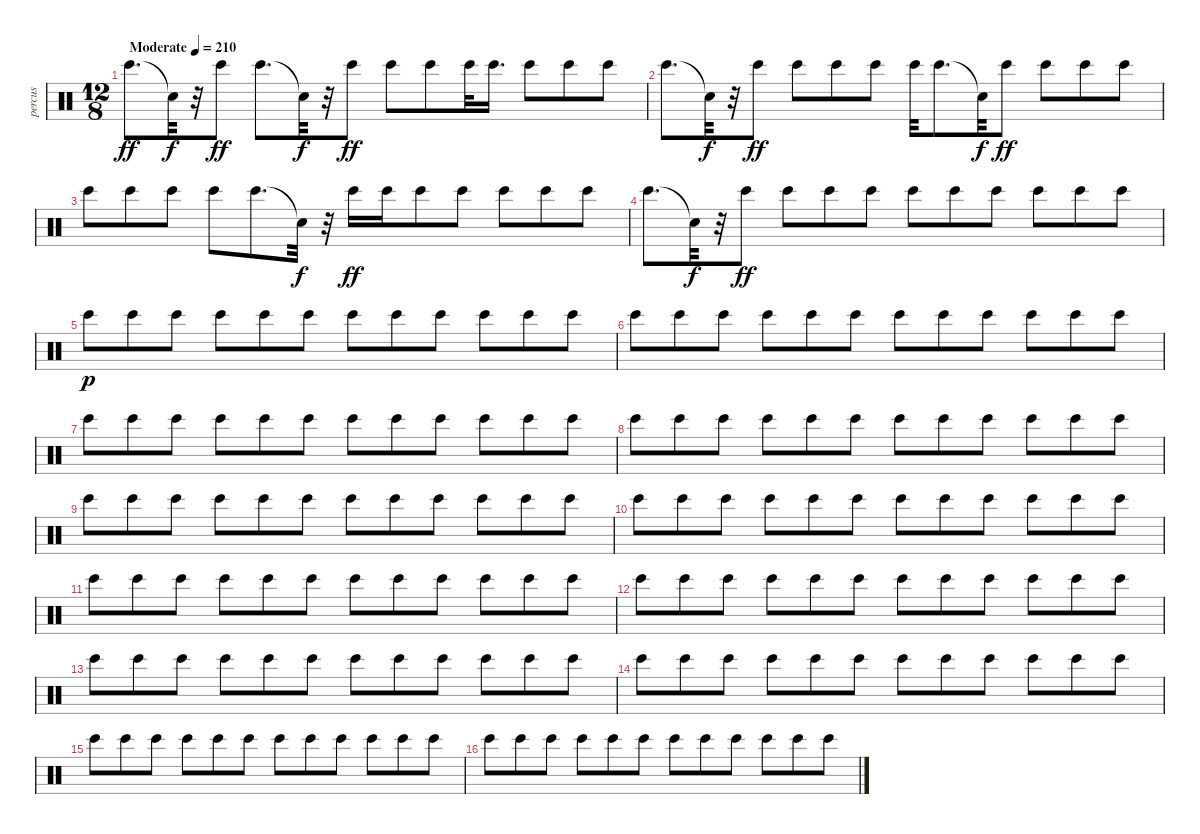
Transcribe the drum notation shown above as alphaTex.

\track ("percus" "percus") {instrument percussion}
\staff {score}
\articulation defaults
\ts (12 8)
\tempo (210 "Moderate")
\clef neutral
\ks c "Bongo High (hit)".8{d dy ff} "Snare (hit)"{t}.32{dy f}
r.32 "Bongo High (hit)".8{dy ff} "Bongo High (hit)".8{d} "Snare (hit)"{t}.32{dy f} r.32 "Bongo High (hit)".8{dy ff} "Bongo High (hit)".8 "Bongo High (hit)".8 "Bongo High (hit)".32 "Bongo High (hit)".16{d} "Bongo High (hit)".8 "Bongo High (hit)".8 "Bongo High (hit)".8 |
"Bongo High (hit)".8{d} "Snare (hit)"{t}.32{dy f} r.32 "Bongo High (hit)".8{dy ff} "Bongo High (hit)".8 "Bongo High (hit)".8 "Bongo High (hit)".8 "Bongo High (hit)".32 "Bongo High (hit)".8{d} "Snare (hit)"{t}.32{dy f} "Bongo High (hit)".8{dy ff} "Bongo High (hit)".8 "Bongo High (hit)".8 "Bongo High (hit)".8 |
"Bongo High (hit)".8 "Bongo High (hit)".8 "Bongo High (hit)".8 "Bongo High (hit)".8 "Bongo High (hit)".8{d} "Snare (hit)"{t}.32{dy f} r.32 "Bongo High (hit)".16{dy ff} "Bongo High (hit)".16 "Bongo High (hit)".8 "Bongo High (hit)".8 "Bongo High (hit)".8 "Bongo High (hit)".8 "Bongo High (hit)".8 |
"Bongo High (hit)".8{d} "Snare (hit)"{t}.32{dy f} r.32 "Bongo High (hit)".8{dy ff} "Bongo High (hit)".8 "Bongo High (hit)".8 "Bongo High (hit)".8 "Bongo High (hit)".8 "Bongo High (hit)".8 "Bongo High (hit)".8 "Bongo High (hit)".8 "Bongo High (hit)".8 "Bongo High (hit)".8 |
"Bongo High (hit)".8{dy p} "Bongo High (hit)".8 "Bongo High (hit)".8 "Bongo High (hit)".8 "Bongo High (hit)".8 "Bongo High (hit)".8 "Bongo High (hit)".8 "Bongo High (hit)".8 "Bongo High (hit)".8 "Bongo High (hit)".8 "Bongo High (hit)".8 "Bongo High (hit)".8 |
"Bongo High (hit)".8 "Bongo High (hit)".8 "Bongo High (hit)".8 "Bongo High (hit)".8 "Bongo High (hit)".8 "Bongo High (hit)".8 "Bongo High (hit)".8 "Bongo High (hit)".8 "Bongo High (hit)".8 "Bongo High (hit)".8 "Bongo High (hit)".8 "Bongo High (hit)".8 |
"Bongo High (hit)".8 "Bongo High (hit)".8 "Bongo High (hit)".8 "Bongo High (hit)".8 "Bongo High (hit)".8 "Bongo High (hit)".8 "Bongo High (hit)".8 "Bongo High (hit)".8 "Bongo High (hit)".8 "Bongo High (hit)".8 "Bongo High (hit)".8 "Bongo High (hit)".8 |
"Bongo High (hit)".8 "Bongo High (hit)".8 "Bongo High (hit)".8 "Bongo High (hit)".8 "Bongo High (hit)".8 "Bongo High (hit)".8 "Bongo High (hit)".8 "Bongo High (hit)".8 "Bongo High (hit)".8 "Bongo High (hit)".8 "Bongo High (hit)".8 "Bongo High (hit)".8 |
"Bongo High (hit)".8 "Bongo High (hit)".8 "Bongo High (hit)".8 "Bongo High (hit)".8 "Bongo High (hit)".8 "Bongo High (hit)".8 "Bongo High (hit)".8 "Bongo High (hit)".8 "Bongo High (hit)".8 "Bongo High (hit)".8 "Bongo High (hit)".8 "Bongo High (hit)".8 |
"Bongo High (hit)".8 "Bongo High (hit)".8 "Bongo High (hit)".8 "Bongo High (hit)".8 "Bongo High (hit)".8 "Bongo High (hit)".8 "Bongo High (hit)".8 "Bongo High (hit)".8 "Bongo High (hit)".8 "Bongo High (hit)".8 "Bongo High (hit)".8 "Bongo High (hit)".8 |
"Bongo High (hit)".8 "Bongo High (hit)".8 "Bongo High (hit)".8 "Bongo High (hit)".8 "Bongo High (hit)".8 "Bongo High (hit)".8 "Bongo High (hit)".8 "Bongo High (hit)".8 "Bongo High (hit)".8 "Bongo High (hit)".8 "Bongo High (hit)".8 "Bongo High (hit)".8 |
"Bongo High (hit)".8 "Bongo High (hit)".8 "Bongo High (hit)".8 "Bongo High (hit)".8 "Bongo High (hit)".8 "Bongo High (hit)".8 "Bongo High (hit)".8 "Bongo High (hit)".8 "Bongo High (hit)".8 "Bongo High (hit)".8 "Bongo High (hit)".8 "Bongo High (hit)".8 |
"Bongo High (hit)".8 "Bongo High (hit)".8 "Bongo High (hit)".8 "Bongo High (hit)".8 "Bongo High (hit)".8 "Bongo High (hit)".8 "Bongo High (hit)".8 "Bongo High (hit)".8 "Bongo High (hit)".8 "Bongo High (hit)".8 "Bongo High (hit)".8 "Bongo High (hit)".8 |
"Bongo High (hit)".8 "Bongo High (hit)".8 "Bongo High (hit)".8 "Bongo High (hit)".8 "Bongo High (hit)".8 "Bongo High (hit)".8 "Bongo High (hit)".8 "Bongo High (hit)".8 "Bongo High (hit)".8 "Bongo High (hit)".8 "Bongo High (hit)".8 "Bongo High (hit)".8 |
"Bongo High (hit)".8 "Bongo High (hit)".8 "Bongo High (hit)".8 "Bongo High (hit)".8 "Bongo High (hit)".8 "Bongo High (hit)".8 "Bongo High (hit)".8 "Bongo High (hit)".8 "Bongo High (hit)".8 "Bongo High (hit)".8 "Bongo High (hit)".8 "Bongo High (hit)".8 |
"Bongo High (hit)".8 "Bongo High (hit)".8 "Bongo High (hit)".8 "Bongo High (hit)".8 "Bongo High (hit)".8 "Bongo High (hit)".8 "Bongo High (hit)".8 "Bongo High (hit)".8 "Bongo High (hit)".8 "Bongo High (hit)".8 "Bongo High (hit)".8 "Bongo High (hit)".8
